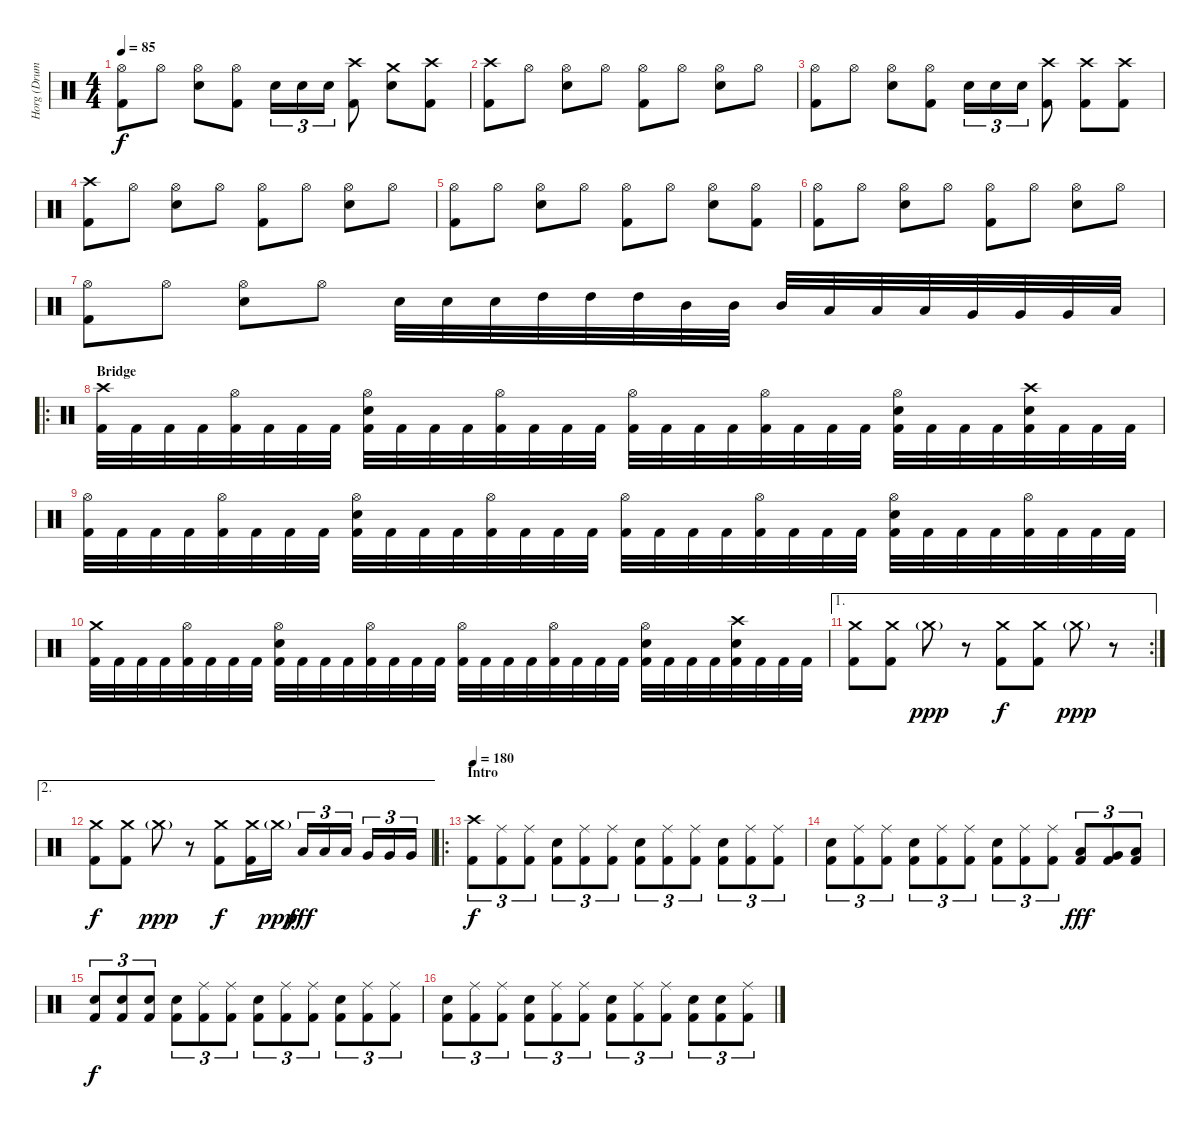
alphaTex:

\track ("Horg (Drums)" "Horg (Drum") {instrument percussion}
\staff {score}
\articulation defaults
\ts (4 4)
\tempo 85
\clef neutral
\ks c
("Hi-Hat (open)" "Kick (hit) 2").8{dy f} "Hi-Hat (open)".8 ("Hi-Hat (open)" "Electric Snare (hit)").8 ("Hi-Hat (open)" "Kick (hit) 2").8 "Electric Snare (hit)".16{tu (3 2)} "Electric Snare (hit)".16{tu (3 2)} "Electric Snare (hit)".16{tu (3 2)} ("Crash high (hit)" "Kick (hit) 2").8 ("Crash medium (hit)" "Electric Snare (hit)").8 ("Crash high (hit)" "Kick (hit) 2").8 |
("Crash high (hit)" "Kick (hit) 2").8 "Hi-Hat (open)".8 ("Hi-Hat (open)" "Electric Snare (hit)").8 "Hi-Hat (open)".8 ("Hi-Hat (open)" "Kick (hit) 2").8 "Hi-Hat (open)".8 ("Hi-Hat (open)" "Electric Snare (hit)").8 "Hi-Hat (open)".8 |
("Hi-Hat (open)" "Kick (hit) 2").8 "Hi-Hat (open)".8 ("Hi-Hat (open)" "Electric Snare (hit)").8 ("Hi-Hat (open)" "Kick (hit) 2").8 "Electric Snare (hit)".16{tu (3 2)} "Electric Snare (hit)".16{tu (3 2)} "Electric Snare (hit)".16{tu (3 2)} ("Crash high (hit)" "Kick (hit) 2").8 ("Crash high (hit)" "Kick (hit) 2").8 ("Crash high (hit)" "Kick (hit) 2").8 |
("Crash high (hit)" "Kick (hit) 2").8 "Hi-Hat (open)".8 ("Hi-Hat (open)" "Electric Snare (hit)").8 "Hi-Hat (open)".8 ("Hi-Hat (open)" "Kick (hit) 2").8 "Hi-Hat (open)".8 ("Hi-Hat (open)" "Electric Snare (hit)").8 "Hi-Hat (open)".8 |
("Hi-Hat (open)" "Kick (hit) 2").8 "Hi-Hat (open)".8 ("Hi-Hat (open)" "Electric Snare (hit)").8 "Hi-Hat (open)".8 ("Hi-Hat (open)" "Kick (hit) 2").8 "Hi-Hat (open)".8 ("Hi-Hat (open)" "Electric Snare (hit)").8 ("Hi-Hat (open)" "Kick (hit) 2").8 |
("Hi-Hat (open)" "Kick (hit) 2").8 "Hi-Hat (open)".8 ("Hi-Hat (open)" "Electric Snare (hit)").8 "Hi-Hat (open)".8 ("Hi-Hat (open)" "Kick (hit) 2").8 "Hi-Hat (open)".8 ("Hi-Hat (open)" "Electric Snare (hit)").8 "Hi-Hat (open)".8 |
("Hi-Hat (open)" "Kick (hit) 2").8 "Hi-Hat (open)".8 ("Hi-Hat (open)" "Electric Snare (hit)").8 "Hi-Hat (open)".8 "Electric Snare (hit)".32 "Electric Snare (hit)".32 "Electric Snare (hit)".32 "High Tom (hit)".32 "High Tom (hit)".32 "High Tom (hit)".32 "Mid Tom (hit)".32 "Mid Tom (hit)".32 "Mid Tom (hit)".32 "Low Tom (hit)".32 "Low Tom (hit)".32 "Low Tom (hit)".32 "Very Low Tom (hit)".32 "Very Low Tom (hit)".32 "Very Low Tom (hit)".32 "Low Floor Tom (hit)".32 |
\ro
\section ("" "Bridge")
("Crash high (hit)" "Kick (hit) 2").32{volume 15} "Kick (hit) 2".32 "Kick (hit) 2".32 "Kick (hit) 2".32 ("Hi-Hat (open)" "Kick (hit) 2").32 "Kick (hit) 2".32 "Kick (hit) 2".32 "Kick (hit) 2".32 ("Hi-Hat (open)" "Electric Snare (hit)" "Kick (hit) 2").32 "Kick (hit) 2".32 "Kick (hit) 2".32 "Kick (hit) 2".32 ("Hi-Hat (open)" "Kick (hit) 2").32 "Kick (hit) 2".32 "Kick (hit) 2".32 "Kick (hit) 2".32 ("Hi-Hat (open)" "Kick (hit) 2").32 "Kick (hit) 2".32 "Kick (hit) 2".32 "Kick (hit) 2".32 ("Hi-Hat (open)" "Kick (hit) 2").32 "Kick (hit) 2".32 "Kick (hit) 2".32 "Kick (hit) 2".32 ("Hi-Hat (open)" "Electric Snare (hit)" "Kick (hit) 2").32 "Kick (hit) 2".32 "Kick (hit) 2".32 "Kick (hit) 2".32 ("Crash high (hit)" "Electric Snare (hit)" "Kick (hit) 2").32 "Kick (hit) 2".32 "Kick (hit) 2".32 "Kick (hit) 2".32 |
("Hi-Hat (open)" "Kick (hit) 2").32 "Kick (hit) 2".32 "Kick (hit) 2".32 "Kick (hit) 2".32 ("Hi-Hat (open)" "Kick (hit) 2").32 "Kick (hit) 2".32 "Kick (hit) 2".32 "Kick (hit) 2".32 ("Hi-Hat (open)" "Electric Snare (hit)" "Kick (hit) 2").32 "Kick (hit) 2".32 "Kick (hit) 2".32 "Kick (hit) 2".32 ("Hi-Hat (open)" "Kick (hit) 2").32 "Kick (hit) 2".32 "Kick (hit) 2".32 "Kick (hit) 2".32 ("Hi-Hat (open)" "Kick (hit) 2").32 "Kick (hit) 2".32 "Kick (hit) 2".32 "Kick (hit) 2".32 ("Hi-Hat (open)" "Kick (hit) 2").32 "Kick (hit) 2".32 "Kick (hit) 2".32 "Kick (hit) 2".32 ("Hi-Hat (open)" "Electric Snare (hit)" "Kick (hit) 2").32 "Kick (hit) 2".32 "Kick (hit) 2".32 "Kick (hit) 2".32 ("Hi-Hat (open)" "Kick (hit) 2").32 "Kick (hit) 2".32 "Kick (hit) 2".32 "Kick (hit) 2".32 |
("Crash medium (hit)" "Kick (hit) 2").32 "Kick (hit) 2".32 "Kick (hit) 2".32 "Kick (hit) 2".32 ("Hi-Hat (open)" "Kick (hit) 2").32 "Kick (hit) 2".32 "Kick (hit) 2".32 "Kick (hit) 2".32 ("Hi-Hat (open)" "Electric Snare (hit)" "Kick (hit) 2").32 "Kick (hit) 2".32 "Kick (hit) 2".32 "Kick (hit) 2".32 ("Hi-Hat (open)" "Kick (hit) 2").32 "Kick (hit) 2".32 "Kick (hit) 2".32 "Kick (hit) 2".32 ("Hi-Hat (open)" "Kick (hit) 2").32 "Kick (hit) 2".32 "Kick (hit) 2".32 "Kick (hit) 2".32 ("Hi-Hat (open)" "Kick (hit) 2").32 "Kick (hit) 2".32 "Kick (hit) 2".32 "Kick (hit) 2".32 ("Hi-Hat (open)" "Electric Snare (hit)" "Kick (hit) 2").32 "Kick (hit) 2".32 "Kick (hit) 2".32 "Kick (hit) 2".32 ("Crash high (hit)" "Electric Snare (hit)" "Kick (hit) 2").32 "Kick (hit) 2".32 "Kick (hit) 2".32 "Kick (hit) 2".32 |
\ae 1
\rc 2
("Crash medium (hit)" "Kick (hit) 2").8 ("Crash medium (hit)" "Kick (hit) 2").8 "Crash medium (hit)"{g}.8{dy ppp volume 0} r.8 ("Crash medium (hit)" "Kick (hit) 2").8{dy f volume 15} ("Crash medium (hit)" "Kick (hit) 2").8 "Crash medium (hit)"{g}.8{dy ppp volume 0} r.8 |
\ae 2
("Crash medium (hit)" "Kick (hit) 2").8{dy f} ("Crash medium (hit)" "Kick (hit) 2").8 "Crash medium (hit)"{g}.8{dy ppp volume 0} r.8 ("Crash medium (hit)" "Kick (hit) 2").8{dy f volume 15} ("Crash medium (hit)" "Kick (hit) 2").16 "Crash medium (hit)"{g}.16{dy ppp volume 0} "Low Tom (hit)".16{tu (3 2) dy fff volume 15} "Low Tom (hit)".16{tu (3 2)} "Low Tom (hit)".16{tu (3 2)} "Very Low Tom (hit)".16{tu (3 2)} "Very Low Tom (hit)".16{tu (3 2)} "Very Low Tom (hit)".16{tu (3 2)} |
\ro
\section ("" "Intro")
\tempo 180
("Crash high (hit)" "Kick (hit) 2").8{tu (3 2) dy f volume 15} ("Ride (middle)" "Kick (hit) 2").8{tu (3 2)} ("Ride (middle)" "Kick (hit) 2").8{tu (3 2)} ("Electric Snare (hit)" "Kick (hit) 2").8{tu (3 2)} ("Ride (middle)" "Kick (hit) 2").8{tu (3 2)} ("Ride (middle)" "Kick (hit) 2").8{tu (3 2)} ("Electric Snare (hit)" "Kick (hit) 2").8{tu (3 2)} ("Ride (middle)" "Kick (hit) 2").8{tu (3 2)} ("Ride (middle)" "Kick (hit) 2").8{tu (3 2)} ("Electric Snare (hit)" "Kick (hit) 2").8{tu (3 2)} ("Ride (middle)" "Kick (hit) 2").8{tu (3 2)} ("Ride (middle)" "Kick (hit) 2").8{tu (3 2)} |
("Electric Snare (hit)" "Kick (hit) 2").8{tu (3 2)} ("Ride (middle)" "Kick (hit) 2").8{tu (3 2)} ("Ride (middle)" "Kick (hit) 2").8{tu (3 2)} ("Electric Snare (hit)" "Kick (hit) 2").8{tu (3 2)} ("Ride (middle)" "Kick (hit) 2").8{tu (3 2)} ("Ride (middle)" "Kick (hit) 2").8{tu (3 2)} ("Electric Snare (hit)" "Kick (hit) 2").8{tu (3 2)} ("Ride (middle)" "Kick (hit) 2").8{tu (3 2)} ("Ride (middle)" "Kick (hit) 2").8{tu (3 2)} ("Low Tom (hit)" "Kick (hit) 2").8{tu (3 2) dy fff} ("Very Low Tom (hit)" "Kick (hit) 2").8{tu (3 2)} ("Low Floor Tom (hit)" "Kick (hit) 2").8{tu (3 2)} |
("Electric Snare (hit)" "Kick (hit) 2").8{tu (3 2) dy f} ("Electric Snare (hit)" "Kick (hit) 2").8{tu (3 2)} ("Electric Snare (hit)" "Kick (hit) 2").8{tu (3 2)} ("Electric Snare (hit)" "Kick (hit) 2").8{tu (3 2)} ("Ride (middle)" "Kick (hit) 2").8{tu (3 2)} ("Ride (middle)" "Kick (hit) 2").8{tu (3 2)} ("Electric Snare (hit)" "Kick (hit) 2").8{tu (3 2)} ("Ride (middle)" "Kick (hit) 2").8{tu (3 2)} ("Ride (middle)" "Kick (hit) 2").8{tu (3 2)} ("Electric Snare (hit)" "Kick (hit) 2").8{tu (3 2)} ("Ride (middle)" "Kick (hit) 2").8{tu (3 2)} ("Ride (middle)" "Kick (hit) 2").8{tu (3 2)} |
("Electric Snare (hit)" "Kick (hit) 2").8{tu (3 2)} ("Ride (middle)" "Kick (hit) 2").8{tu (3 2)} ("Ride (middle)" "Kick (hit) 2").8{tu (3 2)} ("Electric Snare (hit)" "Kick (hit) 2").8{tu (3 2)} ("Ride (middle)" "Kick (hit) 2").8{tu (3 2)} ("Ride (middle)" "Kick (hit) 2").8{tu (3 2)} ("Electric Snare (hit)" "Kick (hit) 2").8{tu (3 2)} ("Ride (middle)" "Kick (hit) 2").8{tu (3 2)} ("Ride (middle)" "Kick (hit) 2").8{tu (3 2)} ("Electric Snare (hit)" "Kick (hit) 2").8{tu (3 2)} ("Electric Snare (hit)" "Kick (hit) 2").8{tu (3 2)} ("Ride (middle)" "Kick (hit) 2").8{tu (3 2)}
